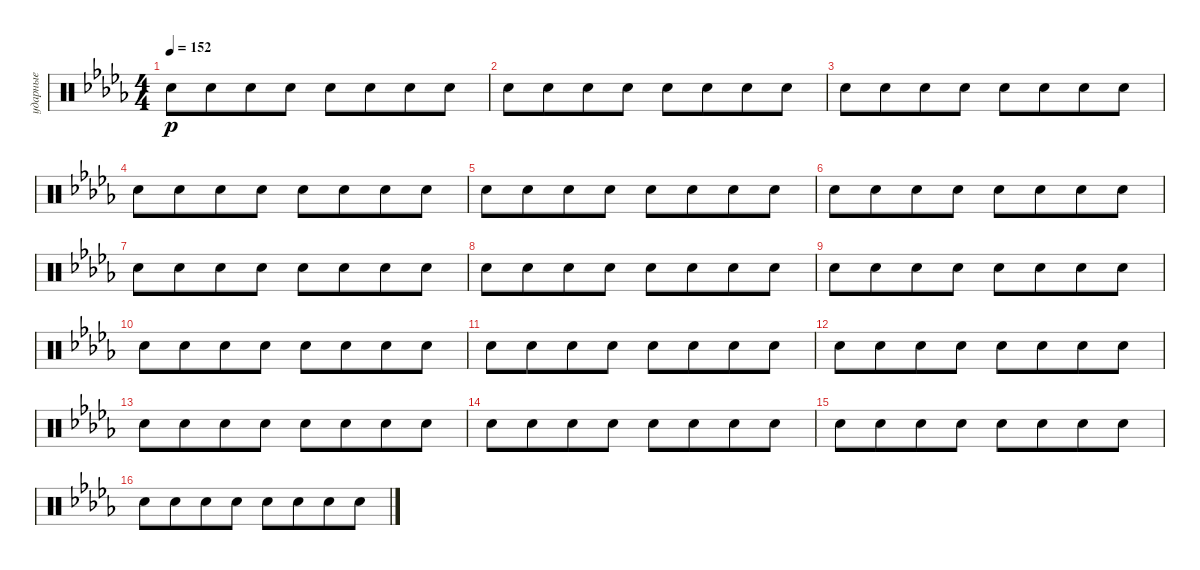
\track ("ударные" "ударные") {instrument percussion}
\staff {score}
\articulation defaults
\ts (4 4)
\tempo 152
\clef neutral
\ks bbminor "Snare (hit) 2".8{dy p} "Snare (hit) 2".8{beam merge} "Snare (hit) 2".8 "Snare (hit) 2".8 "Snare (hit) 2".8 "Snare (hit) 2".8{beam merge} "Snare (hit) 2".8 "Snare (hit) 2".8
|
"Snare (hit) 2".8 "Snare (hit) 2".8{beam merge} "Snare (hit) 2".8 "Snare (hit) 2".8 "Snare (hit) 2".8 "Snare (hit) 2".8{beam merge} "Snare (hit) 2".8 "Snare (hit) 2".8 |
"Snare (hit) 2".8 "Snare (hit) 2".8{beam merge} "Snare (hit) 2".8 "Snare (hit) 2".8 "Snare (hit) 2".8 "Snare (hit) 2".8{beam merge} "Snare (hit) 2".8 "Snare (hit) 2".8 |
"Snare (hit) 2".8 "Snare (hit) 2".8{beam merge} "Snare (hit) 2".8 "Snare (hit) 2".8 "Snare (hit) 2".8 "Snare (hit) 2".8{beam merge} "Snare (hit) 2".8 "Snare (hit) 2".8 |
"Snare (hit) 2".8 "Snare (hit) 2".8{beam merge} "Snare (hit) 2".8 "Snare (hit) 2".8 "Snare (hit) 2".8 "Snare (hit) 2".8{beam merge} "Snare (hit) 2".8 "Snare (hit) 2".8 |
"Snare (hit) 2".8 "Snare (hit) 2".8{beam merge} "Snare (hit) 2".8 "Snare (hit) 2".8 "Snare (hit) 2".8 "Snare (hit) 2".8{beam merge} "Snare (hit) 2".8 "Snare (hit) 2".8 |
"Snare (hit) 2".8 "Snare (hit) 2".8{beam merge} "Snare (hit) 2".8 "Snare (hit) 2".8 "Snare (hit) 2".8 "Snare (hit) 2".8{beam merge} "Snare (hit) 2".8 "Snare (hit) 2".8 |
"Snare (hit) 2".8 "Snare (hit) 2".8{beam merge} "Snare (hit) 2".8 "Snare (hit) 2".8 "Snare (hit) 2".8 "Snare (hit) 2".8{beam merge} "Snare (hit) 2".8 "Snare (hit) 2".8 |
"Snare (hit) 2".8 "Snare (hit) 2".8{beam merge} "Snare (hit) 2".8 "Snare (hit) 2".8 "Snare (hit) 2".8 "Snare (hit) 2".8{beam merge} "Snare (hit) 2".8 "Snare (hit) 2".8 |
"Snare (hit) 2".8 "Snare (hit) 2".8{beam merge} "Snare (hit) 2".8 "Snare (hit) 2".8 "Snare (hit) 2".8 "Snare (hit) 2".8{beam merge} "Snare (hit) 2".8 "Snare (hit) 2".8 |
"Snare (hit) 2".8 "Snare (hit) 2".8{beam merge} "Snare (hit) 2".8 "Snare (hit) 2".8 "Snare (hit) 2".8 "Snare (hit) 2".8{beam merge} "Snare (hit) 2".8 "Snare (hit) 2".8 |
"Snare (hit) 2".8 "Snare (hit) 2".8{beam merge} "Snare (hit) 2".8 "Snare (hit) 2".8 "Snare (hit) 2".8 "Snare (hit) 2".8{beam merge} "Snare (hit) 2".8 "Snare (hit) 2".8 |
"Snare (hit) 2".8 "Snare (hit) 2".8{beam merge} "Snare (hit) 2".8 "Snare (hit) 2".8 "Snare (hit) 2".8 "Snare (hit) 2".8{beam merge} "Snare (hit) 2".8 "Snare (hit) 2".8 |
"Snare (hit) 2".8 "Snare (hit) 2".8{beam merge} "Snare (hit) 2".8 "Snare (hit) 2".8 "Snare (hit) 2".8 "Snare (hit) 2".8{beam merge} "Snare (hit) 2".8 "Snare (hit) 2".8 |
"Snare (hit) 2".8 "Snare (hit) 2".8{beam merge} "Snare (hit) 2".8 "Snare (hit) 2".8 "Snare (hit) 2".8 "Snare (hit) 2".8{beam merge} "Snare (hit) 2".8 "Snare (hit) 2".8 |
"Snare (hit) 2".8 "Snare (hit) 2".8{beam merge} "Snare (hit) 2".8 "Snare (hit) 2".8 "Snare (hit) 2".8 "Snare (hit) 2".8{beam merge} "Snare (hit) 2".8 "Snare (hit) 2".8
